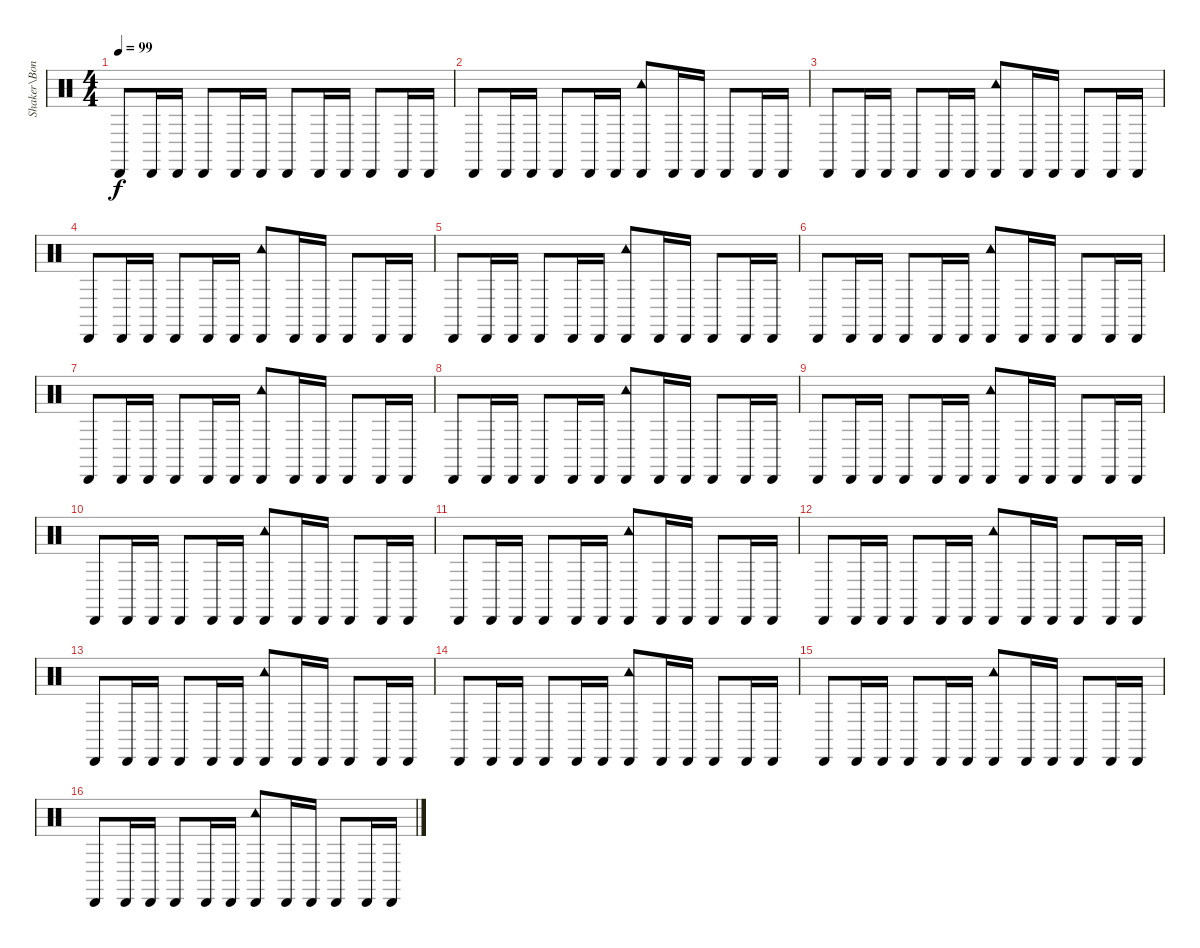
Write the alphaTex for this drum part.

\track ("Shaker\\Bongos" "Shaker\\Bon") {instrument percussion}
\staff {score}
\articulation defaults
\ts (4 4)
\tempo 99
\clef neutral
\ks c "Cabasa (hit)".8{dy f} "Cabasa (hit)".16 "Cabasa (hit)".16 "Cabasa (hit)".8 "Cabasa (hit)".16 "Cabasa (hit)".16 "Cabasa (hit)".8 "Cabasa (hit)".16 "Cabasa (hit)".16 "Cabasa (hit)".8 "Cabasa (hit)".16 "Cabasa (hit)".16
|
"Cabasa (hit)".8 "Cabasa (hit)".16 "Cabasa (hit)".16 "Cabasa (hit)".8 "Cabasa (hit)".16 "Cabasa (hit)".16 ("Tambourine (hit)" "Cabasa (hit)").8 "Cabasa (hit)".16 "Cabasa (hit)".16 "Cabasa (hit)".8 "Cabasa (hit)".16 "Cabasa (hit)".16 |
"Cabasa (hit)".8 "Cabasa (hit)".16 "Cabasa (hit)".16 "Cabasa (hit)".8 "Cabasa (hit)".16 "Cabasa (hit)".16 ("Cabasa (hit)" "Tambourine (hit)").8 "Cabasa (hit)".16 "Cabasa (hit)".16 "Cabasa (hit)".8 "Cabasa (hit)".16 "Cabasa (hit)".16 |
"Cabasa (hit)".8 "Cabasa (hit)".16 "Cabasa (hit)".16 "Cabasa (hit)".8 "Cabasa (hit)".16 "Cabasa (hit)".16 ("Cabasa (hit)" "Tambourine (hit)").8 "Cabasa (hit)".16 "Cabasa (hit)".16 "Cabasa (hit)".8 "Cabasa (hit)".16 "Cabasa (hit)".16 |
"Cabasa (hit)".8 "Cabasa (hit)".16 "Cabasa (hit)".16 "Cabasa (hit)".8 "Cabasa (hit)".16 "Cabasa (hit)".16 ("Cabasa (hit)" "Tambourine (hit)").8 "Cabasa (hit)".16 "Cabasa (hit)".16 "Cabasa (hit)".8 "Cabasa (hit)".16 "Cabasa (hit)".16 |
"Cabasa (hit)".8 "Cabasa (hit)".16 "Cabasa (hit)".16 "Cabasa (hit)".8 "Cabasa (hit)".16 "Cabasa (hit)".16 ("Cabasa (hit)" "Tambourine (hit)").8 "Cabasa (hit)".16 "Cabasa (hit)".16 "Cabasa (hit)".8 "Cabasa (hit)".16 "Cabasa (hit)".16 |
"Cabasa (hit)".8 "Cabasa (hit)".16 "Cabasa (hit)".16 "Cabasa (hit)".8 "Cabasa (hit)".16 "Cabasa (hit)".16 ("Cabasa (hit)" "Tambourine (hit)").8 "Cabasa (hit)".16 "Cabasa (hit)".16 "Cabasa (hit)".8 "Cabasa (hit)".16 "Cabasa (hit)".16 |
"Cabasa (hit)".8 "Cabasa (hit)".16 "Cabasa (hit)".16 "Cabasa (hit)".8 "Cabasa (hit)".16 "Cabasa (hit)".16 ("Cabasa (hit)" "Tambourine (hit)").8 "Cabasa (hit)".16 "Cabasa (hit)".16 "Cabasa (hit)".8 "Cabasa (hit)".16 "Cabasa (hit)".16 |
"Cabasa (hit)".8 "Cabasa (hit)".16 "Cabasa (hit)".16 "Cabasa (hit)".8 "Cabasa (hit)".16 "Cabasa (hit)".16 ("Cabasa (hit)" "Tambourine (hit)").8 "Cabasa (hit)".16 "Cabasa (hit)".16 "Cabasa (hit)".8 "Cabasa (hit)".16 "Cabasa (hit)".16 |
"Cabasa (hit)".8 "Cabasa (hit)".16 "Cabasa (hit)".16 "Cabasa (hit)".8 "Cabasa (hit)".16 "Cabasa (hit)".16 ("Cabasa (hit)" "Tambourine (hit)").8 "Cabasa (hit)".16 "Cabasa (hit)".16 "Cabasa (hit)".8 "Cabasa (hit)".16 "Cabasa (hit)".16 |
"Cabasa (hit)".8 "Cabasa (hit)".16 "Cabasa (hit)".16 "Cabasa (hit)".8 "Cabasa (hit)".16 "Cabasa (hit)".16 ("Cabasa (hit)" "Tambourine (hit)").8 "Cabasa (hit)".16 "Cabasa (hit)".16 "Cabasa (hit)".8 "Cabasa (hit)".16 "Cabasa (hit)".16 |
"Cabasa (hit)".8 "Cabasa (hit)".16 "Cabasa (hit)".16 "Cabasa (hit)".8 "Cabasa (hit)".16 "Cabasa (hit)".16 ("Cabasa (hit)" "Tambourine (hit)").8 "Cabasa (hit)".16 "Cabasa (hit)".16 "Cabasa (hit)".8 "Cabasa (hit)".16 "Cabasa (hit)".16 |
"Cabasa (hit)".8 "Cabasa (hit)".16 "Cabasa (hit)".16 "Cabasa (hit)".8 "Cabasa (hit)".16 "Cabasa (hit)".16 ("Cabasa (hit)" "Tambourine (hit)").8 "Cabasa (hit)".16 "Cabasa (hit)".16 "Cabasa (hit)".8 "Cabasa (hit)".16 "Cabasa (hit)".16 |
"Cabasa (hit)".8 "Cabasa (hit)".16 "Cabasa (hit)".16 "Cabasa (hit)".8 "Cabasa (hit)".16 "Cabasa (hit)".16 ("Tambourine (hit)" "Cabasa (hit)").8 "Cabasa (hit)".16 "Cabasa (hit)".16 "Cabasa (hit)".8 "Cabasa (hit)".16 "Cabasa (hit)".16 |
"Cabasa (hit)".8 "Cabasa (hit)".16 "Cabasa (hit)".16 "Cabasa (hit)".8 "Cabasa (hit)".16 "Cabasa (hit)".16 ("Cabasa (hit)" "Tambourine (hit)").8 "Cabasa (hit)".16 "Cabasa (hit)".16 "Cabasa (hit)".8 "Cabasa (hit)".16 "Cabasa (hit)".16 |
"Cabasa (hit)".8 "Cabasa (hit)".16 "Cabasa (hit)".16 "Cabasa (hit)".8 "Cabasa (hit)".16 "Cabasa (hit)".16 ("Cabasa (hit)" "Tambourine (hit)").8 "Cabasa (hit)".16 "Cabasa (hit)".16 "Cabasa (hit)".8 "Cabasa (hit)".16 "Cabasa (hit)".16
